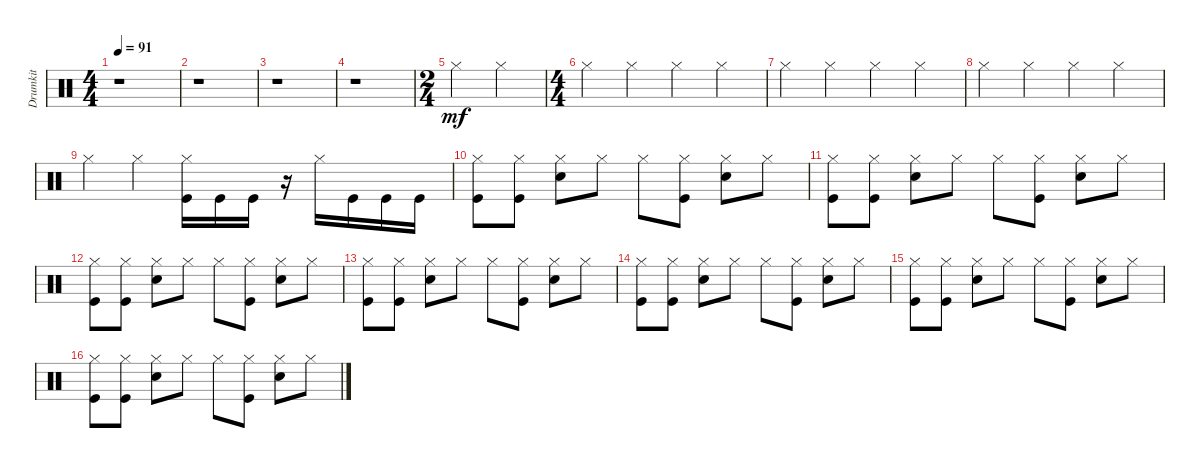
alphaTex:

\track ("Drumkit" "Drumkit") {instrument percussion}
\staff {score}
\articulation defaults
\ts (4 4)
\tempo 91
\clef neutral
\ks c
r.1{dy mf} |
r.1 |
r.1 |
r.1 |
\ts (2 4)
"Hi-Hat (closed)".4 "Hi-Hat (closed)".4 |
\ts (4 4)
"Hi-Hat (closed)".4 "Hi-Hat (closed)".4 "Hi-Hat (closed)".4 "Hi-Hat (closed)".4 |
"Hi-Hat (closed)".4 "Hi-Hat (closed)".4 "Hi-Hat (closed)".4 "Hi-Hat (closed)".4 |
"Hi-Hat (closed)".4 "Hi-Hat (closed)".4 "Hi-Hat (closed)".4 "Hi-Hat (closed)".4 |
"Hi-Hat (closed)".4 "Hi-Hat (closed)".4 ("Hi-Hat (closed)" "Kick (hit)").16 "Kick (hit)".16 "Kick (hit)".16 r.16 "Hi-Hat (closed)".16 "Kick (hit)".16 "Kick (hit)".16 "Kick (hit)".16 |
("Kick (hit)" "Hi-Hat (closed)").8 ("Kick (hit)" "Hi-Hat (closed)").8 ("Hi-Hat (closed)" "Snare (hit) 2").8 "Hi-Hat (closed)".8 "Hi-Hat (closed)".8 ("Kick (hit)" "Hi-Hat (closed)").8 ("Hi-Hat (closed)" "Snare (hit) 2").8 "Hi-Hat (closed)".8 |
("Kick (hit)" "Hi-Hat (closed)").8 ("Kick (hit)" "Hi-Hat (closed)").8 ("Hi-Hat (closed)" "Snare (hit) 2").8 "Hi-Hat (closed)".8 "Hi-Hat (closed)".8 ("Kick (hit)" "Hi-Hat (closed)").8 ("Hi-Hat (closed)" "Snare (hit) 2").8 "Hi-Hat (closed)".8 |
("Kick (hit)" "Hi-Hat (closed)").8 ("Kick (hit)" "Hi-Hat (closed)").8 ("Hi-Hat (closed)" "Snare (hit) 2").8 "Hi-Hat (closed)".8 "Hi-Hat (closed)".8 ("Kick (hit)" "Hi-Hat (closed)").8 ("Hi-Hat (closed)" "Snare (hit) 2").8 "Hi-Hat (closed)".8 |
("Kick (hit)" "Hi-Hat (closed)").8 ("Kick (hit)" "Hi-Hat (closed)").8 ("Hi-Hat (closed)" "Snare (hit) 2").8 "Hi-Hat (closed)".8 "Hi-Hat (closed)".8 ("Kick (hit)" "Hi-Hat (closed)").8 ("Hi-Hat (closed)" "Snare (hit) 2").8 "Hi-Hat (closed)".8 |
("Kick (hit)" "Hi-Hat (closed)").8 ("Kick (hit)" "Hi-Hat (closed)").8 ("Hi-Hat (closed)" "Snare (hit) 2").8 "Hi-Hat (closed)".8 "Hi-Hat (closed)".8 ("Kick (hit)" "Hi-Hat (closed)").8 ("Hi-Hat (closed)" "Snare (hit) 2").8 "Hi-Hat (closed)".8 |
("Kick (hit)" "Hi-Hat (closed)").8 ("Kick (hit)" "Hi-Hat (closed)").8 ("Hi-Hat (closed)" "Snare (hit) 2").8 "Hi-Hat (closed)".8 "Hi-Hat (closed)".8 ("Kick (hit)" "Hi-Hat (closed)").8 ("Hi-Hat (closed)" "Snare (hit) 2").8 "Hi-Hat (closed)".8 |
("Kick (hit)" "Hi-Hat (closed)").8 ("Kick (hit)" "Hi-Hat (closed)").8 ("Hi-Hat (closed)" "Snare (hit) 2").8 "Hi-Hat (closed)".8 "Hi-Hat (closed)".8 ("Kick (hit)" "Hi-Hat (closed)").8 ("Hi-Hat (closed)" "Snare (hit) 2").8 "Hi-Hat (closed)".8
